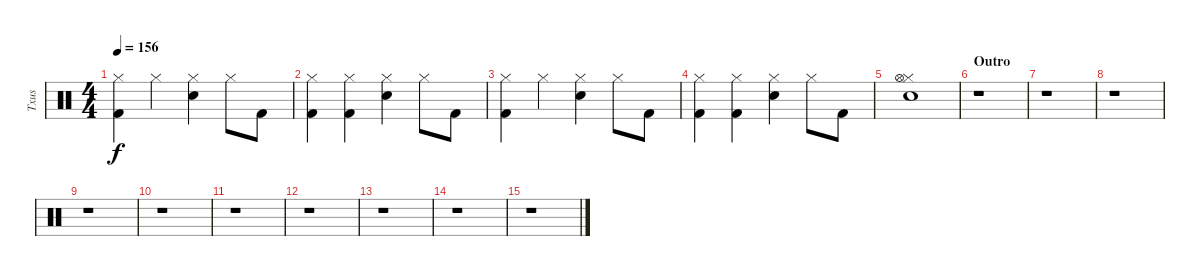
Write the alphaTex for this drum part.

\track ("Txus" "Txus") {instrument percussion}
\staff {score}
\articulation defaults
\ts (4 4)
\tempo 156
\clef neutral
\ks c
("Hi-Hat (closed)" "Kick (hit) 2").4{dy f} "Hi-Hat (closed)".4 ("Snare (hit) 2" "Hi-Hat (closed)").4 "Hi-Hat (closed)".8 "Kick (hit) 2".8 |
("Kick (hit) 2" "Hi-Hat (closed)").4 ("Hi-Hat (closed)" "Kick (hit) 2").4 ("Hi-Hat (closed)" "Snare (hit) 2").4 "Hi-Hat (closed)".8 "Kick (hit) 2".8 |
("Hi-Hat (closed)" "Kick (hit) 2").4 "Hi-Hat (closed)".4 ("Snare (hit) 2" "Hi-Hat (closed)").4 "Hi-Hat (closed)".8 "Kick (hit) 2".8 |
("Kick (hit) 2" "Hi-Hat (closed)").4 ("Hi-Hat (closed)" "Kick (hit) 2").4 ("Hi-Hat (closed)" "Snare (hit) 2").4 "Hi-Hat (closed)".8 "Kick (hit) 2".8 |
("Hi-Hat (closed)" "Hi-Hat (open)" "Snare (hit) 2").1 |
\section ("" "Outro")
r.1 |
r.1 |
r.1 |
r.1 |
r.1 |
r.1 |
r.1 |
r.1 |
r.1 |
r.1
